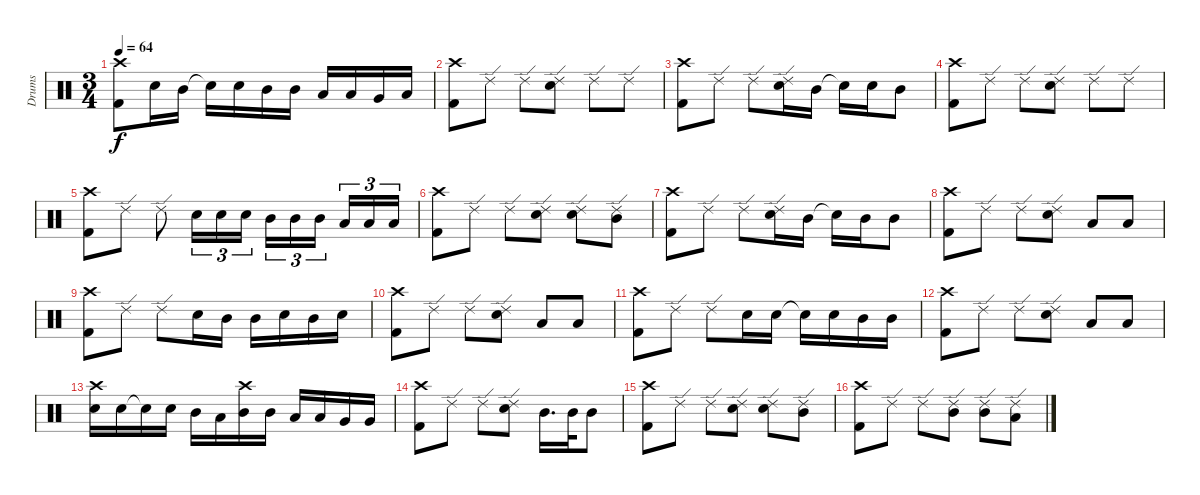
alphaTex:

\track ("Drums" "Drums") {instrument percussion}
\staff {score}
\articulation defaults
\ts (3 4)
\tempo 64
\clef neutral
\ks c
("Crash high (hit)" "Kick (hit) 2").8{dy f} "Snare (hit) 2".16 "Mid Tom (hit)".16 "Snare (hit)"{t}.16 "Snare (hit) 2".16 "Mid Tom (hit)".16 "Mid Tom (hit)".16 "Low Tom (hit)".16 "Low Tom (hit)".16 "Very Low Tom (hit)".16 "Low Floor Tom (hit)".16 |
("Crash high (hit)" "Kick (hit) 2").8 "Ride (edge) 2".8 "Ride (edge) 2".8 ("Ride (edge) 2" "Snare (hit) 2").8 "Ride (edge) 2".8 "Ride (edge) 2".8 |
("Crash high (hit)" "Kick (hit) 2").8 "Ride (edge) 2".8 "Ride (edge) 2".8 ("Ride (edge) 2" "Snare (hit) 2").16 "Mid Tom (hit)".16 "Snare (hit)"{t}.16 "Snare (hit) 2".16 "Mid Tom (hit)".8 |
("Crash high (hit)" "Kick (hit) 2").8 "Ride (edge) 2".8 "Ride (edge) 2".8 ("Ride (edge) 2" "Snare (hit) 2").8 "Ride (edge) 2".8 "Ride (edge) 2".8 |
("Crash high (hit)" "Kick (hit) 2").8 "Ride (edge) 2".8 "Ride (edge) 2".8 "Snare (hit) 2".16{tu (3 2)} "Snare (hit) 2".16{tu (3 2)} "Snare (hit) 2".16{tu (3 2)} "Mid Tom (hit)".16{tu (3 2)} "Mid Tom (hit)".16{tu (3 2)} "Mid Tom (hit)".16{tu (3 2) beam splitsecondary} "Low Tom (hit)".16{tu (3 2)} "Low Tom (hit)".16{tu (3 2)} "Low Tom (hit)".16{tu (3 2)} |
("Crash high (hit)" "Kick (hit) 2").8 "Ride (edge) 2".8 "Ride (edge) 2".8 ("Ride (edge) 2" "Snare (hit) 2").8 ("Ride (edge) 2" "Snare (hit) 2").8 ("Ride (edge) 2" "Mid Tom (hit)").8 |
("Crash high (hit)" "Kick (hit) 2").8 "Ride (edge) 2".8 "Ride (edge) 2".8 ("Ride (edge) 2" "Snare (hit) 2").16 "Mid Tom (hit)".16 "Snare (hit)"{t}.16 "Mid Tom (hit)".16 "Mid Tom (hit)".8 |
("Crash high (hit)" "Kick (hit) 2").8 "Ride (edge) 2".8 "Ride (edge) 2".8 ("Ride (edge) 2" "Snare (hit) 2").8 "Low Tom (hit)".8 "Low Tom (hit)".8 |
("Crash high (hit)" "Kick (hit) 2").8 "Ride (edge) 2".8 "Ride (edge) 2".8 "Snare (hit) 2".16 "Mid Tom (hit)".16 "Mid Tom (hit)".16 "Snare (hit) 2".16 "Mid Tom (hit)".16 "Snare (hit) 2".16 |
("Crash high (hit)" "Kick (hit) 2").8 "Ride (edge) 2".8 "Ride (edge) 2".8 ("Ride (edge) 2" "Snare (hit) 2").8 "Low Tom (hit)".8 "Low Tom (hit)".8 |
("Crash high (hit)" "Kick (hit) 2").8 "Ride (edge) 2".8 "Ride (edge) 2".8 "Snare (hit) 2".16 "Snare (hit) 2".16 "Snare (hit)"{t}.16 "Snare (hit) 2".16 "Mid Tom (hit)".16 "Mid Tom (hit)".16 |
("Crash high (hit)" "Kick (hit) 2").8 "Ride (edge) 2".8 "Ride (edge) 2".8 ("Ride (edge) 2" "Snare (hit) 2").8 "Low Tom (hit)".8 "Low Tom (hit)".8 |
("Snare (hit) 2" "Crash high (hit)").16 "Snare (hit) 2".16 "Snare (hit)"{t}.16 "Snare (hit) 2".16 "Mid Tom (hit)".16 "Low Tom (hit)".16 ("Crash high (hit)" "Mid Tom (hit)").16 "Mid Tom (hit)".16 "Low Tom (hit)".16 "Low Tom (hit)".16 "Very Low Tom (hit)".16 "Very Low Tom (hit)".16 |
("Crash high (hit)" "Kick (hit) 2").8 "Ride (edge) 2".8 "Ride (edge) 2".8 ("Ride (edge) 2" "Snare (hit) 2").8 "Mid Tom (hit)".16{d} "Mid Tom (hit)".32 "Mid Tom (hit)".8 |
("Crash high (hit)" "Kick (hit) 2").8 "Ride (edge) 2".8 "Ride (edge) 2".8 ("Ride (edge) 2" "Snare (hit) 2").8 ("Ride (edge) 2" "Snare (hit) 2").8 ("Ride (edge) 2" "Mid Tom (hit)").8 |
("Crash high (hit)" "Kick (hit) 2").8 "Ride (edge) 2".8 "Ride (edge) 2".8 ("Ride (edge) 2" "Mid Tom (hit)").8 ("Ride (edge) 2" "Mid Tom (hit)").8 ("Ride (edge) 2" "Low Tom (hit)").8
